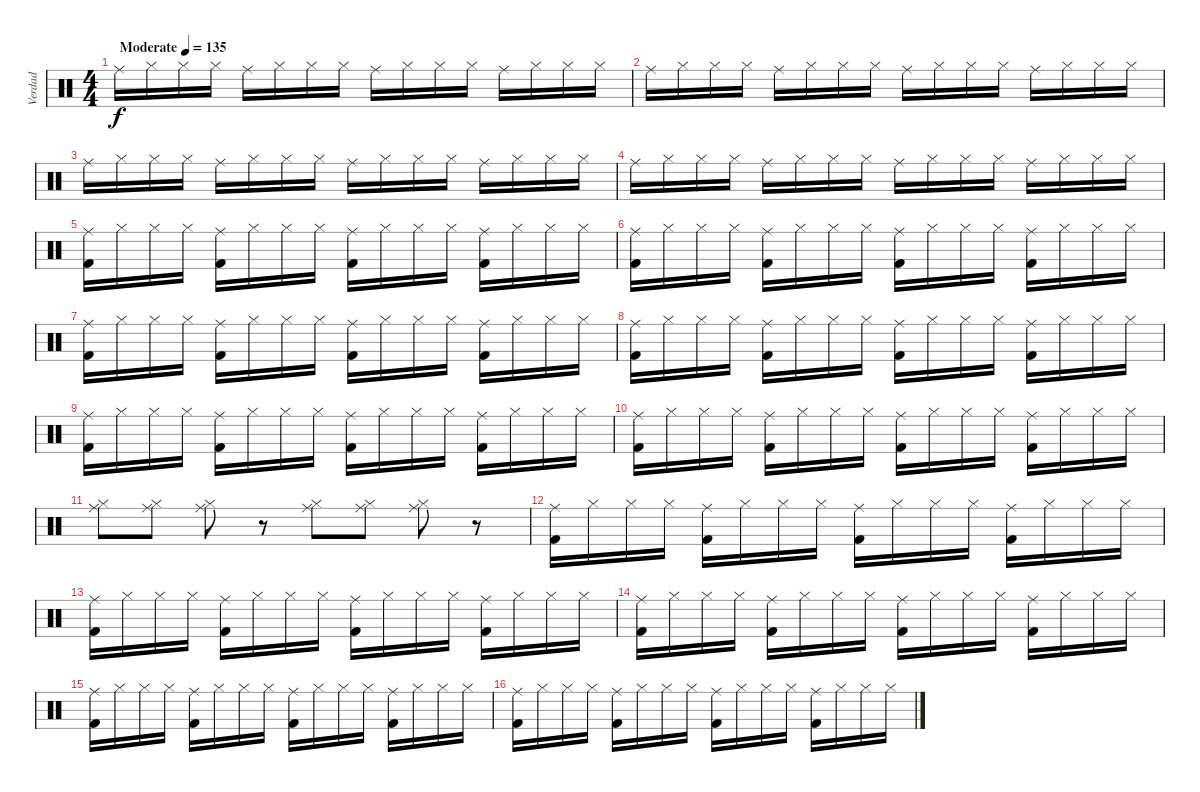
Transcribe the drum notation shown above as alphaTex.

\track ("Verdad" "Verdad") {instrument percussion}
\staff {score}
\articulation defaults
\ts (4 4)
\tempo (135 "Moderate")
\clef neutral
\ks c "Ride (middle)".16{dy f} "Hi-Hat (closed)".16 "Hi-Hat (closed)".16 "Hi-Hat (closed)".16 "Ride (middle)".16 "Hi-Hat (closed)".16 "Hi-Hat (closed)".16 "Hi-Hat (closed)".16 "Ride (middle)".16 "Hi-Hat (closed)".16 "Hi-Hat (closed)".16 "Hi-Hat (closed)".16 "Ride (middle)".16 "Hi-Hat (closed)".16 "Hi-Hat (closed)".16 "Hi-Hat (closed)".16
|
"Ride (middle)".16 "Hi-Hat (closed)".16 "Hi-Hat (closed)".16 "Hi-Hat (closed)".16 "Ride (middle)".16 "Hi-Hat (closed)".16 "Hi-Hat (closed)".16 "Hi-Hat (closed)".16 "Ride (middle)".16 "Hi-Hat (closed)".16 "Hi-Hat (closed)".16 "Hi-Hat (closed)".16 "Ride (middle)".16 "Hi-Hat (closed)".16 "Hi-Hat (closed)".16 "Hi-Hat (closed)".16 |
"Ride (middle)".16 "Hi-Hat (closed)".16 "Hi-Hat (closed)".16 "Hi-Hat (closed)".16 "Ride (middle)".16 "Hi-Hat (closed)".16 "Hi-Hat (closed)".16 "Hi-Hat (closed)".16 "Ride (middle)".16 "Hi-Hat (closed)".16 "Hi-Hat (closed)".16 "Hi-Hat (closed)".16 "Ride (middle)".16 "Hi-Hat (closed)".16 "Hi-Hat (closed)".16 "Hi-Hat (closed)".16 |
"Ride (middle)".16 "Hi-Hat (closed)".16 "Hi-Hat (closed)".16 "Hi-Hat (closed)".16 "Ride (middle)".16 "Hi-Hat (closed)".16 "Hi-Hat (closed)".16 "Hi-Hat (closed)".16 "Ride (middle)".16 "Hi-Hat (closed)".16 "Hi-Hat (closed)".16 "Hi-Hat (closed)".16 "Ride (middle)".16 "Hi-Hat (closed)".16 "Hi-Hat (closed)".16 "Hi-Hat (closed)".16 |
("Kick (hit) 2" "Ride (middle)").16 "Hi-Hat (closed)".16 "Hi-Hat (closed)".16 "Hi-Hat (closed)".16 ("Kick (hit) 2" "Ride (middle)").16 "Hi-Hat (closed)".16 "Hi-Hat (closed)".16 "Hi-Hat (closed)".16 ("Kick (hit) 2" "Ride (middle)").16 "Hi-Hat (closed)".16 "Hi-Hat (closed)".16 "Hi-Hat (closed)".16 ("Kick (hit) 2" "Ride (middle)").16 "Hi-Hat (closed)".16 "Hi-Hat (closed)".16 "Hi-Hat (closed)".16 |
("Kick (hit) 2" "Ride (middle)").16 "Hi-Hat (closed)".16 "Hi-Hat (closed)".16 "Hi-Hat (closed)".16 ("Kick (hit) 2" "Ride (middle)").16 "Hi-Hat (closed)".16 "Hi-Hat (closed)".16 "Hi-Hat (closed)".16 ("Kick (hit) 2" "Ride (middle)").16 "Hi-Hat (closed)".16 "Hi-Hat (closed)".16 "Hi-Hat (closed)".16 ("Kick (hit) 2" "Ride (middle)").16 "Hi-Hat (closed)".16 "Hi-Hat (closed)".16 "Hi-Hat (closed)".16 |
("Kick (hit) 2" "Ride (middle)").16 "Hi-Hat (closed)".16 "Hi-Hat (closed)".16 "Hi-Hat (closed)".16 ("Kick (hit) 2" "Ride (middle)").16 "Hi-Hat (closed)".16 "Hi-Hat (closed)".16 "Hi-Hat (closed)".16 ("Kick (hit) 2" "Ride (middle)").16 "Hi-Hat (closed)".16 "Hi-Hat (closed)".16 "Hi-Hat (closed)".16 ("Kick (hit) 2" "Ride (middle)").16 "Hi-Hat (closed)".16 "Hi-Hat (closed)".16 "Hi-Hat (closed)".16 |
("Kick (hit) 2" "Ride (middle)").16 "Hi-Hat (closed)".16 "Hi-Hat (closed)".16 "Hi-Hat (closed)".16 ("Kick (hit) 2" "Ride (middle)").16 "Hi-Hat (closed)".16 "Hi-Hat (closed)".16 "Hi-Hat (closed)".16 ("Kick (hit) 2" "Ride (middle)").16 "Hi-Hat (closed)".16 "Hi-Hat (closed)".16 "Hi-Hat (closed)".16 ("Kick (hit) 2" "Ride (middle)").16 "Hi-Hat (closed)".16 "Hi-Hat (closed)".16 "Hi-Hat (closed)".16 |
("Kick (hit) 2" "Ride (middle)").16 "Hi-Hat (closed)".16 "Hi-Hat (closed)".16 "Hi-Hat (closed)".16 ("Kick (hit) 2" "Ride (middle)").16 "Hi-Hat (closed)".16 "Hi-Hat (closed)".16 "Hi-Hat (closed)".16 ("Kick (hit) 2" "Ride (middle)").16 "Hi-Hat (closed)".16 "Hi-Hat (closed)".16 "Hi-Hat (closed)".16 ("Kick (hit) 2" "Ride (middle)").16 "Hi-Hat (closed)".16 "Hi-Hat (closed)".16 "Hi-Hat (closed)".16 |
("Kick (hit) 2" "Ride (middle)").16 "Hi-Hat (closed)".16 "Hi-Hat (closed)".16 "Hi-Hat (closed)".16 ("Kick (hit) 2" "Ride (middle)").16 "Hi-Hat (closed)".16 "Hi-Hat (closed)".16 "Hi-Hat (closed)".16 ("Kick (hit) 2" "Ride (middle)").16 "Hi-Hat (closed)".16 "Hi-Hat (closed)".16 "Hi-Hat (closed)".16 ("Kick (hit) 2" "Ride (middle)").16 "Hi-Hat (closed)".16 "Hi-Hat (closed)".16 "Hi-Hat (closed)".16 |
("Hi-Hat (closed)" "Ride (middle)").8 ("Hi-Hat (closed)" "Ride (middle)").8 ("Hi-Hat (closed)" "Ride (middle)").8 r.8 ("Hi-Hat (closed)" "Ride (middle)").8 ("Hi-Hat (closed)" "Ride (middle)").8 ("Hi-Hat (closed)" "Ride (middle)").8 r.8 |
("Kick (hit) 2" "Ride (middle)").16 "Hi-Hat (closed)".16 "Hi-Hat (closed)".16 "Hi-Hat (closed)".16 ("Kick (hit) 2" "Ride (middle)").16 "Hi-Hat (closed)".16 "Hi-Hat (closed)".16 "Hi-Hat (closed)".16 ("Kick (hit) 2" "Ride (middle)").16 "Hi-Hat (closed)".16 "Hi-Hat (closed)".16 "Hi-Hat (closed)".16 ("Kick (hit) 2" "Ride (middle)").16 "Hi-Hat (closed)".16 "Hi-Hat (closed)".16 "Hi-Hat (closed)".16 |
("Kick (hit) 2" "Ride (middle)").16 "Hi-Hat (closed)".16 "Hi-Hat (closed)".16 "Hi-Hat (closed)".16 ("Kick (hit) 2" "Ride (middle)").16 "Hi-Hat (closed)".16 "Hi-Hat (closed)".16 "Hi-Hat (closed)".16 ("Kick (hit) 2" "Ride (middle)").16 "Hi-Hat (closed)".16 "Hi-Hat (closed)".16 "Hi-Hat (closed)".16 ("Kick (hit) 2" "Ride (middle)").16 "Hi-Hat (closed)".16 "Hi-Hat (closed)".16 "Hi-Hat (closed)".16 |
("Kick (hit) 2" "Ride (middle)").16 "Hi-Hat (closed)".16 "Hi-Hat (closed)".16 "Hi-Hat (closed)".16 ("Kick (hit) 2" "Ride (middle)").16 "Hi-Hat (closed)".16 "Hi-Hat (closed)".16 "Hi-Hat (closed)".16 ("Kick (hit) 2" "Ride (middle)").16 "Hi-Hat (closed)".16 "Hi-Hat (closed)".16 "Hi-Hat (closed)".16 ("Kick (hit) 2" "Ride (middle)").16 "Hi-Hat (closed)".16 "Hi-Hat (closed)".16 "Hi-Hat (closed)".16 |
("Kick (hit) 2" "Ride (middle)").16 "Hi-Hat (closed)".16 "Hi-Hat (closed)".16 "Hi-Hat (closed)".16 ("Kick (hit) 2" "Ride (middle)").16 "Hi-Hat (closed)".16 "Hi-Hat (closed)".16 "Hi-Hat (closed)".16 ("Kick (hit) 2" "Ride (middle)").16 "Hi-Hat (closed)".16 "Hi-Hat (closed)".16 "Hi-Hat (closed)".16 ("Kick (hit) 2" "Ride (middle)").16 "Hi-Hat (closed)".16 "Hi-Hat (closed)".16 "Hi-Hat (closed)".16 |
("Kick (hit) 2" "Ride (middle)").16 "Hi-Hat (closed)".16 "Hi-Hat (closed)".16 "Hi-Hat (closed)".16 ("Kick (hit) 2" "Ride (middle)").16 "Hi-Hat (closed)".16 "Hi-Hat (closed)".16 "Hi-Hat (closed)".16 ("Kick (hit) 2" "Ride (middle)").16 "Hi-Hat (closed)".16 "Hi-Hat (closed)".16 "Hi-Hat (closed)".16 ("Kick (hit) 2" "Ride (middle)").16 "Hi-Hat (closed)".16 "Hi-Hat (closed)".16 "Hi-Hat (closed)".16
